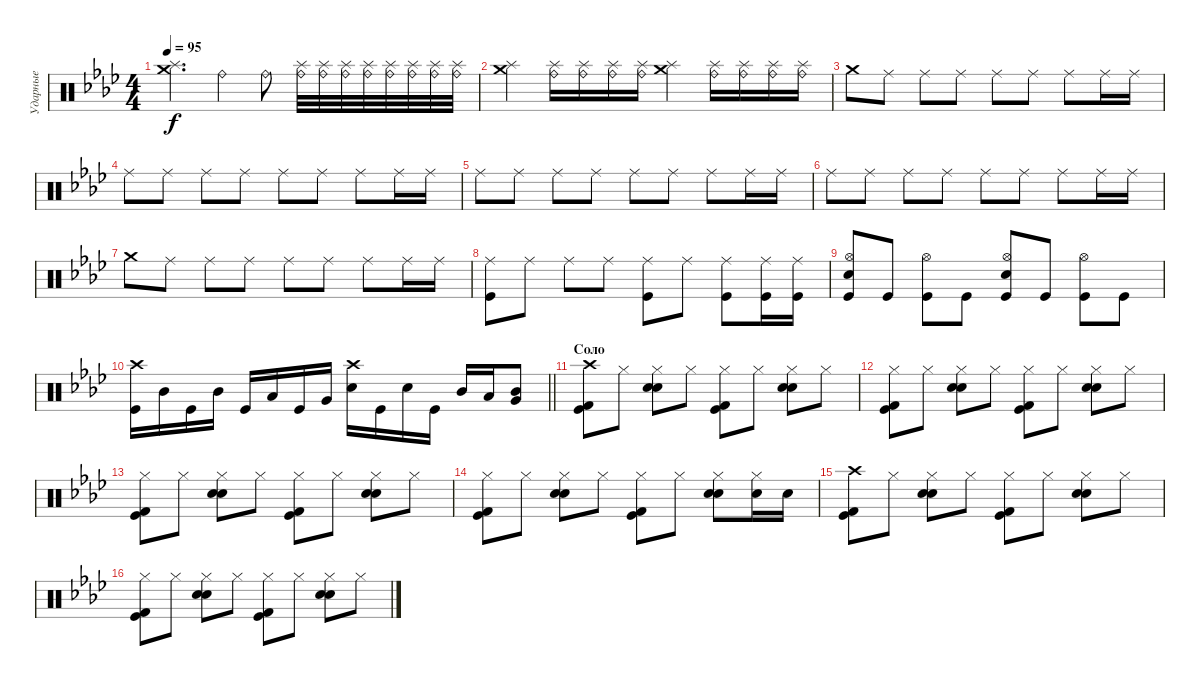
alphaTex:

\track ("Ударные" "Ударные") {instrument percussion}
\staff {score}
\articulation defaults
\ts (4 4)
\tempo 95
\clef neutral
\ks ab
("Crash medium (hit)" "Splash (hit)").4{d dy f} "Ride (bell)".4 "Ride (bell)".8 ("Ride (bell)" "Splash (hit)").32 ("Ride (bell)" "Splash (hit)").32 ("Ride (bell)" "Splash (hit)").32 ("Ride (bell)" "Splash (hit)").32 ("Ride (bell)" "Splash (hit)").32 ("Ride (bell)" "Splash (hit)").32 ("Ride (bell)" "Splash (hit)").32 ("Ride (bell)" "Splash (hit)").32 |
("Crash medium (hit)" "Splash (hit)").4 ("Ride (bell)" "Splash (hit)").16 ("Ride (bell)" "Splash (hit)").16 ("Ride (bell)" "Splash (hit)").16 ("Ride (bell)" "Splash (hit)").16 ("Crash medium (hit)" "Splash (hit)").4 ("Ride (bell)" "Splash (hit)").16 ("Ride (bell)" "Splash (hit)").16 ("Ride (bell)" "Splash (hit)").16 ("Ride (bell)" "Splash (hit)").16 |
"Crash medium (hit)".8 "Ride (middle)".8 "Ride (middle)".8 "Ride (middle)".8 "Ride (middle)".8 "Ride (middle)".8 "Ride (middle)".8 "Ride (middle)".16 "Ride (middle)".16 |
"Ride (middle)".8 "Ride (middle)".8 "Ride (middle)".8 "Ride (middle)".8 "Ride (middle)".8 "Ride (middle)".8 "Ride (middle)".8 "Ride (middle)".16 "Ride (middle)".16 |
"Ride (middle)".8 "Ride (middle)".8 "Ride (middle)".8 "Ride (middle)".8 "Ride (middle)".8 "Ride (middle)".8 "Ride (middle)".8 "Ride (middle)".16 "Ride (middle)".16 |
"Ride (middle)".8 "Ride (middle)".8 "Ride (middle)".8 "Ride (middle)".8 "Ride (middle)".8 "Ride (middle)".8 "Ride (middle)".8 "Ride (middle)".16 "Ride (middle)".16 |
"Crash medium (hit)".8 "Ride (middle)".8 "Ride (middle)".8 "Ride (middle)".8 "Ride (middle)".8 "Ride (middle)".8 "Ride (middle)".8 "Ride (middle)".16 "Ride (middle)".16 |
("Ride (middle)" "Kick (hit)").8{volume 13} "Ride (middle)".8 "Ride (middle)".8 "Ride (middle)".8 ("Ride (middle)" "Kick (hit)").8 "Ride (middle)".8 ("Ride (middle)" "Kick (hit)").8 ("Ride (middle)" "Kick (hit)").16 ("Ride (middle)" "Kick (hit)").16 |
("Hi-Hat (open)" "Snare (hit) 2" "Kick (hit)").8 "Kick (hit)".8 ("Hi-Hat (open)" "Kick (hit)").8 "Kick (hit)".8 ("Hi-Hat (open)" "Snare (hit) 2" "Kick (hit)").8 "Kick (hit)".8 ("Hi-Hat (open)" "Kick (hit)").8 "Kick (hit)".8 |
\barLineRight lightlight
("Crash high (hit)" "Kick (hit)").16 "Mid Tom (hit)".16 "Kick (hit)".16 "Mid Tom (hit)".16 "Kick (hit)".16 "Low Tom (hit)".16 "Kick (hit)".16 "Very Low Tom (hit)".16 ("Crash high (hit)" "Snare (hit) 2").16 "Kick (hit)".16 "Snare (hit) 2".16 "Kick (hit)".16 "Mid Tom (hit)".16 "Low Tom (hit)".16 ("Mid Tom (hit)" "Very Low Tom (hit)").8 |
\section ("" "Соло")
("Crash high (hit)" "Kick (hit) 2" "Kick (hit)").8 "Hi-Hat (closed)".8 ("Hi-Hat (closed)" "Electric Snare (hit)" "Snare (hit) 2").8 "Hi-Hat (closed)".8 ("Hi-Hat (closed)" "Kick (hit) 2" "Kick (hit)").8 "Hi-Hat (closed)".8 ("Hi-Hat (closed)" "Electric Snare (hit)" "Snare (hit) 2").8 "Hi-Hat (closed)".8 |
("Hi-Hat (closed)" "Kick (hit) 2" "Kick (hit)").8 "Hi-Hat (closed)".8 ("Hi-Hat (closed)" "Electric Snare (hit)" "Snare (hit) 2").8 "Hi-Hat (closed)".8 ("Hi-Hat (closed)" "Kick (hit) 2" "Kick (hit)").8 "Hi-Hat (closed)".8 ("Hi-Hat (closed)" "Electric Snare (hit)" "Snare (hit) 2").8 "Hi-Hat (closed)".8 |
("Hi-Hat (closed)" "Kick (hit) 2" "Kick (hit)").8 "Hi-Hat (closed)".8 ("Hi-Hat (closed)" "Electric Snare (hit)" "Snare (hit) 2").8 "Hi-Hat (closed)".8 ("Hi-Hat (closed)" "Kick (hit) 2" "Kick (hit)").8 "Hi-Hat (closed)".8 ("Hi-Hat (closed)" "Electric Snare (hit)" "Snare (hit) 2").8 "Hi-Hat (closed)".8 |
("Hi-Hat (closed)" "Kick (hit) 2" "Kick (hit)").8 "Hi-Hat (closed)".8 ("Hi-Hat (closed)" "Electric Snare (hit)" "Snare (hit) 2").8 "Hi-Hat (closed)".8 ("Hi-Hat (closed)" "Kick (hit) 2" "Kick (hit)").8 "Hi-Hat (closed)".8 ("Hi-Hat (closed)" "Electric Snare (hit)" "Snare (hit) 2").8 ("Hi-Hat (closed)" "Snare (hit) 2").16 "Snare (hit) 2".16 |
("Crash high (hit)" "Kick (hit) 2" "Kick (hit)").8 "Hi-Hat (closed)".8 ("Hi-Hat (closed)" "Electric Snare (hit)" "Snare (hit) 2").8 "Hi-Hat (closed)".8 ("Hi-Hat (closed)" "Kick (hit) 2" "Kick (hit)").8 "Hi-Hat (closed)".8 ("Hi-Hat (closed)" "Electric Snare (hit)" "Snare (hit) 2").8 "Hi-Hat (closed)".8 |
("Hi-Hat (closed)" "Kick (hit) 2" "Kick (hit)").8 "Hi-Hat (closed)".8 ("Hi-Hat (closed)" "Electric Snare (hit)" "Snare (hit) 2").8 "Hi-Hat (closed)".8 ("Hi-Hat (closed)" "Kick (hit) 2" "Kick (hit)").8 "Hi-Hat (closed)".8 ("Hi-Hat (closed)" "Electric Snare (hit)" "Snare (hit) 2").8 "Hi-Hat (closed)".8
